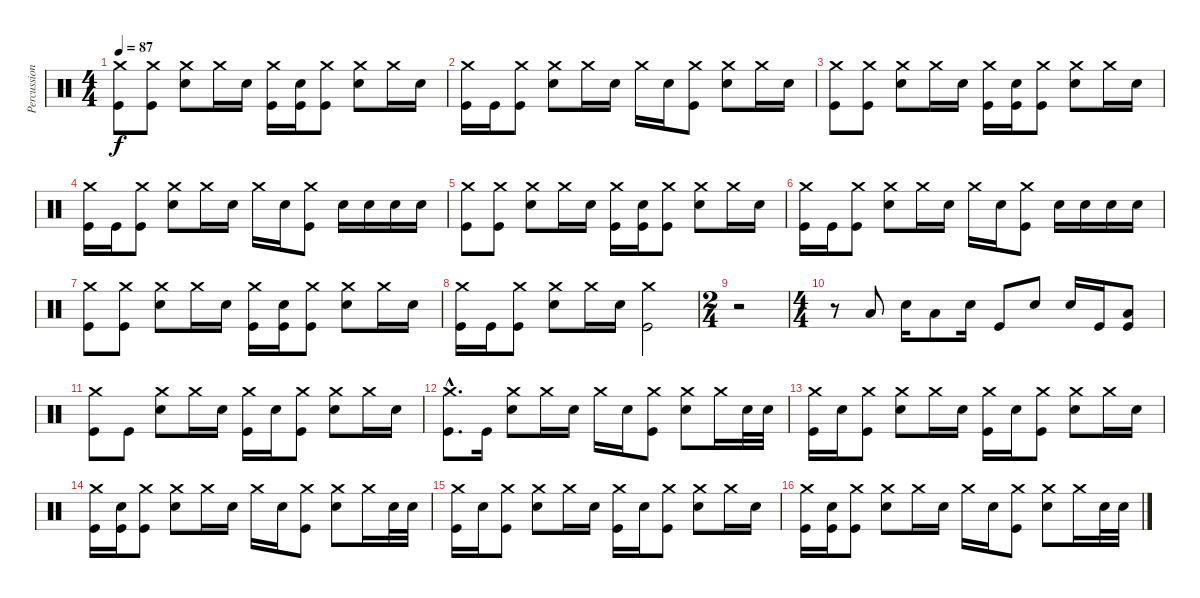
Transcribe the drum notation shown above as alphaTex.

\track ("Percussion" "Percussion") {instrument percussion}
\staff {score}
\articulation defaults
\ts (4 4)
\tempo 87
\clef neutral
\ks c
("Crash medium (hit)" "Kick (hit)").8{dy f} ("Crash medium (hit)" "Kick (hit)").8 ("Crash medium (hit)" "Snare (hit) 2").8 "Crash medium (hit)".16 "Snare (hit) 2".16 ("Crash medium (hit)" "Kick (hit)").16 ("Snare (hit) 2" "Kick (hit)").16 ("Crash medium (hit)" "Kick (hit)").8 ("Crash medium (hit)" "Snare (hit) 2").8 "Crash medium (hit)".16 "Snare (hit) 2".16 |
("Crash medium (hit)" "Kick (hit)").16 "Kick (hit)".16 ("Crash medium (hit)" "Kick (hit)").8 ("Crash medium (hit)" "Snare (hit) 2").8 "Crash medium (hit)".16 "Snare (hit) 2".16 "Crash medium (hit)".16 "Snare (hit) 2".16 ("Crash medium (hit)" "Kick (hit)").8 ("Crash medium (hit)" "Snare (hit) 2").8 "Crash medium (hit)".16 "Snare (hit) 2".16 |
("Crash medium (hit)" "Kick (hit)").8 ("Crash medium (hit)" "Kick (hit)").8 ("Crash medium (hit)" "Snare (hit) 2").8 "Crash medium (hit)".16 "Snare (hit) 2".16 ("Crash medium (hit)" "Kick (hit)").16 ("Snare (hit) 2" "Kick (hit)").16 ("Crash medium (hit)" "Kick (hit)").8 ("Crash medium (hit)" "Snare (hit) 2").8 "Crash medium (hit)".16 "Snare (hit) 2".16 |
("Crash medium (hit)" "Kick (hit)").16 "Kick (hit)".16 ("Crash medium (hit)" "Kick (hit)").8 ("Crash medium (hit)" "Snare (hit) 2").8 "Crash medium (hit)".16 "Snare (hit) 2".16 "Crash medium (hit)".16 "Snare (hit) 2".16 ("Crash medium (hit)" "Kick (hit)").8 "Snare (hit) 2".16 "Snare (hit) 2".16 "Snare (hit) 2".16 "Snare (hit) 2".16 |
("Crash medium (hit)" "Kick (hit)").8 ("Crash medium (hit)" "Kick (hit)").8 ("Crash medium (hit)" "Snare (hit) 2").8 "Crash medium (hit)".16 "Snare (hit) 2".16 ("Crash medium (hit)" "Kick (hit)").16 ("Snare (hit) 2" "Kick (hit)").16 ("Crash medium (hit)" "Kick (hit)").8 ("Crash medium (hit)" "Snare (hit) 2").8 "Crash medium (hit)".16 "Snare (hit) 2".16 |
("Crash medium (hit)" "Kick (hit)").16 "Kick (hit)".16 ("Crash medium (hit)" "Kick (hit)").8 ("Crash medium (hit)" "Snare (hit) 2").8 "Crash medium (hit)".16 "Snare (hit) 2".16 "Crash medium (hit)".16 "Snare (hit) 2".16 ("Crash medium (hit)" "Kick (hit)").8 "Snare (hit) 2".16 "Snare (hit) 2".16 "Snare (hit) 2".16 "Snare (hit) 2".16 |
("Crash medium (hit)" "Kick (hit)").8 ("Crash medium (hit)" "Kick (hit)").8 ("Crash medium (hit)" "Snare (hit) 2").8 "Crash medium (hit)".16 "Snare (hit) 2".16 ("Crash medium (hit)" "Kick (hit)").16 ("Snare (hit) 2" "Kick (hit)").16 ("Crash medium (hit)" "Kick (hit)").8 ("Crash medium (hit)" "Snare (hit) 2").8 "Crash medium (hit)".16 "Snare (hit) 2".16 |
("Crash medium (hit)" "Kick (hit)").16 "Kick (hit)".16 ("Crash medium (hit)" "Kick (hit)").8 ("Crash medium (hit)" "Snare (hit) 2").8 "Crash medium (hit)".16 "Snare (hit) 2".16 ("Crash medium (hit)" "Kick (hit)").2 |
\ts (2 4)
r.2 |
\ts (4 4)
r.8 "Low Tom (hit)".8 "Snare (hit) 2".16 "Low Tom (hit)".8 "Snare (hit) 2".16 "Kick (hit)".8 "Snare (hit) 2".8 "Snare (hit) 2".16 "Kick (hit)".16 ("Low Tom (hit)" "Kick (hit)").8 |
("Crash medium (hit)" "Kick (hit)").8 "Kick (hit)".8 ("Crash medium (hit)" "Snare (hit) 2").8 "Crash medium (hit)".16 "Snare (hit) 2".16 ("Crash medium (hit)" "Kick (hit)").16 "Snare (hit) 2".16 ("Crash medium (hit)" "Kick (hit)").8 ("Crash medium (hit)" "Snare (hit) 2").8 "Crash medium (hit)".16 "Snare (hit) 2".16 |
("Crash medium (hit)"{hac} "Kick (hit)"{hac}).8{d} "Kick (hit)".16 ("Crash medium (hit)" "Snare (hit) 2").8 "Crash medium (hit)".16 "Snare (hit) 2".16 "Crash medium (hit)".16 "Snare (hit) 2".16 ("Crash medium (hit)" "Kick (hit)").8 ("Crash medium (hit)" "Snare (hit) 2").8 "Crash medium (hit)".16 "Snare (hit) 2".32 "Snare (hit) 2".32 |
("Crash medium (hit)" "Kick (hit)").16 "Snare (hit) 2".16 ("Crash medium (hit)" "Kick (hit)").8 ("Crash medium (hit)" "Snare (hit) 2").8 "Crash medium (hit)".16 "Snare (hit) 2".16 ("Crash medium (hit)" "Kick (hit)").16 "Snare (hit) 2".16 ("Crash medium (hit)" "Kick (hit)").8 ("Crash medium (hit)" "Snare (hit) 2").8 "Crash medium (hit)".16 "Snare (hit) 2".16 |
("Crash medium (hit)" "Kick (hit)").16 ("Snare (hit) 2" "Kick (hit)").16 ("Crash medium (hit)" "Kick (hit)").8 ("Crash medium (hit)" "Snare (hit) 2").8 "Crash medium (hit)".16 "Snare (hit) 2".16 "Crash medium (hit)".16 "Snare (hit) 2".16 ("Crash medium (hit)" "Kick (hit)").8 ("Crash medium (hit)" "Snare (hit) 2").8 "Crash medium (hit)".16 "Snare (hit) 2".32 "Snare (hit) 2".32 |
("Crash medium (hit)" "Kick (hit)").16 "Snare (hit) 2".16 ("Crash medium (hit)" "Kick (hit)").8 ("Crash medium (hit)" "Snare (hit) 2").8 "Crash medium (hit)".16 "Snare (hit) 2".16 ("Crash medium (hit)" "Kick (hit)").16 "Snare (hit) 2".16 ("Crash medium (hit)" "Kick (hit)").8 ("Crash medium (hit)" "Snare (hit) 2").8 "Crash medium (hit)".16 "Snare (hit) 2".16 |
("Crash medium (hit)" "Kick (hit)").16 ("Snare (hit) 2" "Kick (hit)").16 ("Crash medium (hit)" "Kick (hit)").8 ("Crash medium (hit)" "Snare (hit) 2").8 "Crash medium (hit)".16 "Snare (hit) 2".16 "Crash medium (hit)".16 "Snare (hit) 2".16 ("Crash medium (hit)" "Kick (hit)").8 ("Crash medium (hit)" "Snare (hit) 2").8 "Crash medium (hit)".16 "Snare (hit) 2".32 "Snare (hit) 2".32
